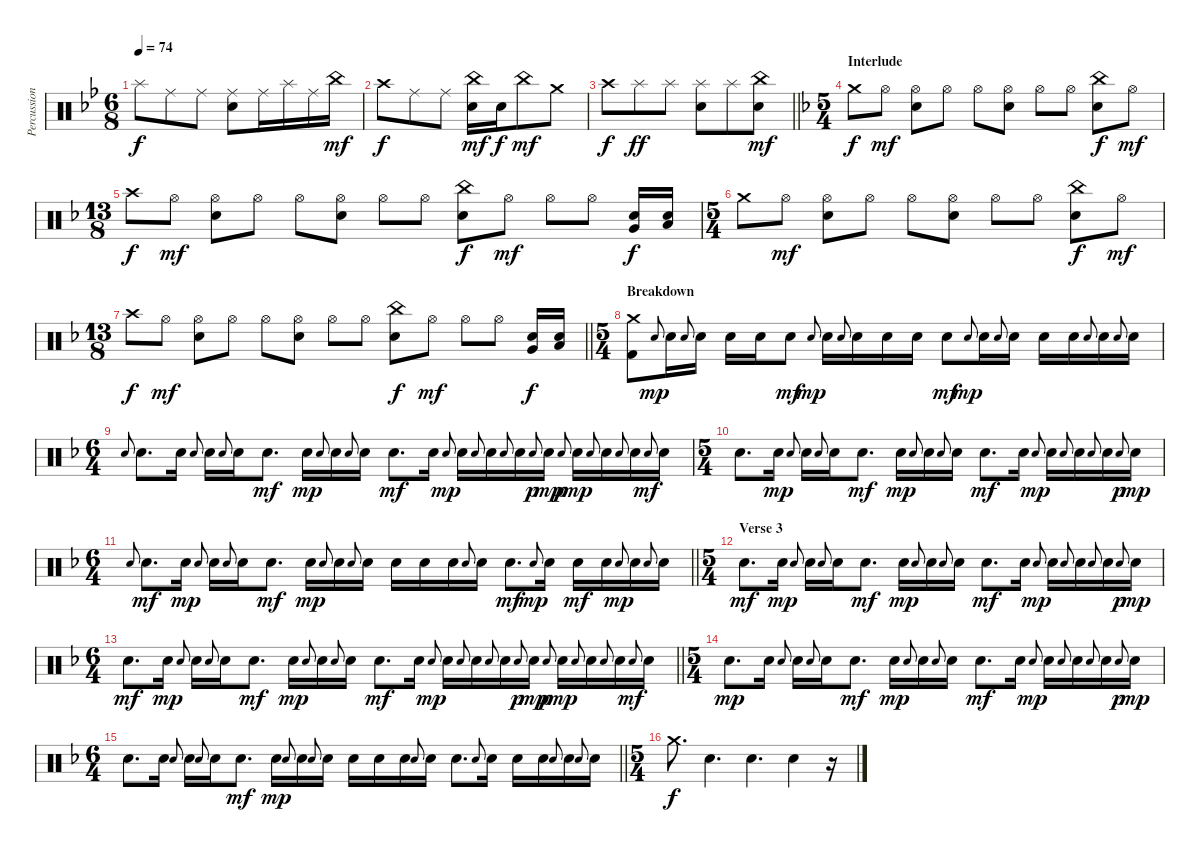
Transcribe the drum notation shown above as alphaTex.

\track ("Percussion" "Percussion") {instrument percussion}
\staff {score}
\articulation defaults
\ts (6 8)
\tempo 74
\clef neutral
\ks bb "Splash (hit)".8{dy f} "Ride (middle)".8 "Ride (middle)".8
("Ride (middle)" "Electric Snare (hit)").8 "Ride (middle)".16 "Splash (hit)".16 "Ride (middle)".16 "China (hit)".16{dy mf} |
"Crash high (hit)".8{dy f} "Ride (middle)".8 "Ride (middle)".8 ("China (hit)" "Electric Snare (hit)").16{dy mf} "Electric Snare (hit)".16{dy f} "China (hit)".8{dy mf} "Crash medium (hit)".8 |
\barLineRight lightlight "Crash high (hit)".8{dy f} "Splash (hit)".8{dy ff} "Splash (hit)".8
("Splash (hit)" "Electric Snare (hit)").8 "Splash (hit)".8 ("China (hit)" "Electric Snare (hit)").8{dy mf} |
\ts (5 4)
\section ("" "Interlude")
\ks f "Crash medium (hit)".8{dy f} "Hi-Hat (open)".8{dy mf}
("Hi-Hat (open)" "Electric Snare (hit)").8 "Hi-Hat (open)".8 "Hi-Hat (open)".8 ("Hi-Hat (open)" "Electric Snare (hit)").8 "Hi-Hat (open)".8 "Hi-Hat (open)".8 ("China (hit)" "Electric Snare (hit)").8{dy f} "Hi-Hat (open)".8{dy mf} |
\ts (13 8)
"Crash high (hit)".8{dy f} "Hi-Hat (open)".8{dy mf} ("Hi-Hat (open)" "Electric Snare (hit)").8 "Hi-Hat (open)".8 "Hi-Hat (open)".8 ("Hi-Hat (open)" "Electric Snare (hit)").8 "Hi-Hat (open)".8 "Hi-Hat (open)".8 ("China (hit)" "Electric Snare (hit)").8{dy f} "Hi-Hat (open)".8{dy mf} "Hi-Hat (open)".8 "Hi-Hat (open)".8 ("Very Low Tom (hit)" "Electric Snare (hit)").16{dy f} ("Low Floor Tom (hit)" "Electric Snare (hit)").16 |
\ts (5 4)
"Crash medium (hit)".8 "Hi-Hat (open)".8{dy mf} ("Hi-Hat (open)" "Electric Snare (hit)").8 "Hi-Hat (open)".8 "Hi-Hat (open)".8 ("Hi-Hat (open)" "Electric Snare (hit)").8 "Hi-Hat (open)".8 "Hi-Hat (open)".8 ("China (hit)" "Electric Snare (hit)").8{dy f} "Hi-Hat (open)".8{dy mf} |
\ts (13 8)
\barLineRight lightlight "Crash high (hit)".8{dy f} "Hi-Hat (open)".8{dy mf}
("Hi-Hat (open)" "Electric Snare (hit)").8 "Hi-Hat (open)".8 "Hi-Hat (open)".8 ("Hi-Hat (open)" "Electric Snare (hit)").8 "Hi-Hat (open)".8 "Hi-Hat (open)".8 ("China (hit)" "Electric Snare (hit)").8{dy f} "Hi-Hat (open)".8{dy mf} "Hi-Hat (open)".8 "Hi-Hat (open)".8 ("Very Low Tom (hit)" "Electric Snare (hit)").16{dy f} ("Low Floor Tom (hit)" "Electric Snare (hit)").16 |
\ts (5 4)
\section ("" "Breakdown")
("Crash medium (hit)" "Kick (hit) 2").8 "Electric Snare (hit)".8{gr onbeat dy mp} "Electric Snare (hit)".16 "Electric Snare (hit)".8{gr onbeat} "Electric Snare (hit)".16 "Electric Snare (hit)".16 "Electric Snare (hit)".16 "Electric Snare (hit)".8{dy mf} "Electric Snare (hit)".8{gr onbeat dy mp} "Electric Snare (hit)".16 "Electric Snare (hit)".8{gr onbeat} "Electric Snare (hit)".16 "Electric Snare (hit)".16 "Electric Snare (hit)".16 "Electric Snare (hit)".8{dy mf} "Electric Snare (hit)".8{gr onbeat dy mp} "Electric Snare (hit)".16 "Electric Snare (hit)".8{gr onbeat} "Electric Snare (hit)".16 "Electric Snare (hit)".16 "Electric Snare (hit)".16 "Electric Snare (hit)".8{gr onbeat} "Electric Snare (hit)".16 "Electric Snare (hit)".8{gr onbeat} "Electric Snare (hit)".16 |
\ts (6 4)
"Electric Snare (hit)".8{gr onbeat} "Electric Snare (hit)".8{d} "Electric Snare (hit)".16 "Electric Snare (hit)".8{gr onbeat} "Electric Snare (hit)".16 "Electric Snare (hit)".8{gr onbeat} "Electric Snare (hit)".16 "Electric Snare (hit)".8{d dy mf} "Electric Snare (hit)".16{dy mp} "Electric Snare (hit)".8{gr onbeat} "Electric Snare (hit)".16 "Electric Snare (hit)".8{gr onbeat} "Electric Snare (hit)".16 "Electric Snare (hit)".8{d dy mf} "Electric Snare (hit)".16 "Electric Snare (hit)".8{gr onbeat dy mp} "Electric Snare (hit)".16 "Electric Snare (hit)".8{gr onbeat} "Electric Snare (hit)".16 "Electric Snare (hit)".8{gr onbeat} "Electric Snare (hit)".16 "Electric Snare (hit)".8{gr onbeat dy p} "Electric Snare (hit)".16{dy mp} "Electric Snare (hit)".8{gr onbeat dy p} "Electric Snare (hit)".16{dy mp} "Electric Snare (hit)".8{gr onbeat} "Electric Snare (hit)".16 "Electric Snare (hit)".8{gr onbeat} "Electric Snare (hit)".16 "Electric Snare (hit)".8{gr onbeat dy mf} "Electric Snare (hit)".16 |
\ts (5 4)
"Electric Snare (hit)".8{d} "Electric Snare (hit)".16{dy mp} "Electric Snare (hit)".8{gr onbeat} "Electric Snare (hit)".16 "Electric Snare (hit)".8{gr onbeat} "Electric Snare (hit)".16 "Electric Snare (hit)".8{d dy mf} "Electric Snare (hit)".16{dy mp} "Electric Snare (hit)".8{gr onbeat} "Electric Snare (hit)".16 "Electric Snare (hit)".8{gr onbeat} "Electric Snare (hit)".16 "Electric Snare (hit)".8{d dy mf} "Electric Snare (hit)".16 "Electric Snare (hit)".8{gr onbeat dy mp} "Electric Snare (hit)".16 "Electric Snare (hit)".8{gr onbeat} "Electric Snare (hit)".16 "Electric Snare (hit)".8{gr onbeat} "Electric Snare (hit)".16 "Electric Snare (hit)".8{gr onbeat dy p} "Electric Snare (hit)".16{dy mp} |
\ts (6 4)
\barLineRight lightlight "Electric Snare (hit)".8{gr onbeat} "Electric Snare (hit)".8{d dy mf} "Electric Snare (hit)".16{dy mp} "Electric Snare (hit)".8{gr onbeat} "Electric Snare (hit)".16 "Electric Snare (hit)".8{gr onbeat} "Electric Snare (hit)".16 "Electric Snare (hit)".8{d dy mf} "Electric Snare (hit)".16{dy mp} "Electric Snare (hit)".8{gr onbeat} "Electric Snare (hit)".16 "Electric Snare (hit)".8{gr onbeat} "Electric Snare (hit)".16 "Electric Snare (hit)".16 "Electric Snare (hit)".16 "Electric Snare (hit)".16 "Electric Snare (hit)".8{gr onbeat} "Electric Snare (hit)".16 "Electric Snare (hit)".8{d dy mf} "Electric Snare (hit)".8{gr onbeat dy mp} "Electric Snare (hit)".16 "Electric Snare (hit)".16{dy mf} "Electric Snare (hit)".16 "Electric Snare (hit)".8{gr onbeat dy mp} "Electric Snare (hit)".16 "Electric Snare (hit)".8{gr onbeat} "Electric Snare (hit)".16
|
\ts (5 4)
\section ("" "Verse 3")
"Electric Snare (hit)".8{d dy mf} "Electric Snare (hit)".16{dy mp} "Electric Snare (hit)".8{gr onbeat} "Electric Snare (hit)".16 "Electric Snare (hit)".8{gr onbeat} "Electric Snare (hit)".16 "Electric Snare (hit)".8{d dy mf} "Electric Snare (hit)".16{dy mp} "Electric Snare (hit)".8{gr onbeat} "Electric Snare (hit)".16 "Electric Snare (hit)".8{gr onbeat} "Electric Snare (hit)".16 "Electric Snare (hit)".8{d dy mf} "Electric Snare (hit)".16 "Electric Snare (hit)".8{gr onbeat dy mp} "Electric Snare (hit)".16 "Electric Snare (hit)".8{gr onbeat} "Electric Snare (hit)".16 "Electric Snare (hit)".8{gr onbeat} "Electric Snare (hit)".16 "Electric Snare (hit)".8{gr onbeat dy p} "Electric Snare (hit)".16{dy mp} |
\ts (6 4)
\barLineRight lightlight "Electric Snare (hit)".8{d dy mf} "Electric Snare (hit)".16{dy mp} "Electric Snare (hit)".8{gr onbeat} "Electric Snare (hit)".16 "Electric Snare (hit)".8{gr onbeat} "Electric Snare (hit)".16 "Electric Snare (hit)".8{d dy mf} "Electric Snare (hit)".16{dy mp} "Electric Snare (hit)".8{gr onbeat} "Electric Snare (hit)".16 "Electric Snare (hit)".8{gr onbeat} "Electric Snare (hit)".16 "Electric Snare (hit)".8{d dy mf} "Electric Snare (hit)".16 "Electric Snare (hit)".8{gr onbeat dy mp} "Electric Snare (hit)".16 "Electric Snare (hit)".8{gr onbeat} "Electric Snare (hit)".16 "Electric Snare (hit)".8{gr onbeat} "Electric Snare (hit)".16 "Electric Snare (hit)".8{gr onbeat dy p} "Electric Snare (hit)".16{dy mp} "Electric Snare (hit)".8{gr onbeat dy p} "Electric Snare (hit)".16{dy mp} "Electric Snare (hit)".8{gr onbeat} "Electric Snare (hit)".16 "Electric Snare (hit)".8{gr onbeat} "Electric Snare (hit)".16 "Electric Snare (hit)".8{gr onbeat dy mf} "Electric Snare (hit)".16
|
\ts (5 4)
"Electric Snare (hit)".8{d dy mp} "Electric Snare (hit)".16 "Electric Snare (hit)".8{gr onbeat} "Electric Snare (hit)".16 "Electric Snare (hit)".8{gr onbeat} "Electric Snare (hit)".16 "Electric Snare (hit)".8{d dy mf} "Electric Snare (hit)".16{dy mp} "Electric Snare (hit)".8{gr onbeat} "Electric Snare (hit)".16 "Electric Snare (hit)".8{gr onbeat} "Electric Snare (hit)".16 "Electric Snare (hit)".8{d dy mf} "Electric Snare (hit)".16 "Electric Snare (hit)".8{gr onbeat dy mp} "Electric Snare (hit)".16 "Electric Snare (hit)".8{gr onbeat} "Electric Snare (hit)".16 "Electric Snare (hit)".8{gr onbeat} "Electric Snare (hit)".16 "Electric Snare (hit)".8{gr onbeat dy p} "Electric Snare (hit)".16{dy mp} |
\ts (6 4)
\barLineRight lightlight "Electric Snare (hit)".8{d} "Electric Snare (hit)".16 "Electric Snare (hit)".8{gr onbeat} "Electric Snare (hit)".16 "Electric Snare (hit)".8{gr onbeat} "Electric Snare (hit)".16 "Electric Snare (hit)".8{d dy mf} "Electric Snare (hit)".16{dy mp} "Electric Snare (hit)".8{gr onbeat} "Electric Snare (hit)".16 "Electric Snare (hit)".8{gr onbeat} "Electric Snare (hit)".16 "Electric Snare (hit)".16 "Electric Snare (hit)".16 "Electric Snare (hit)".16 "Electric Snare (hit)".8{gr onbeat} "Electric Snare (hit)".16 "Electric Snare (hit)".8{d} "Electric Snare (hit)".8{gr onbeat} "Electric Snare (hit)".16 "Electric Snare (hit)".16 "Electric Snare (hit)".16 "Electric Snare (hit)".8{gr onbeat} "Electric Snare (hit)".16 "Electric Snare (hit)".8{gr onbeat} "Electric Snare (hit)".16
|
\ts (5 4)
"Crash medium (hit)".8{d dy f} "Electric Snare (hit)".4{d} "Electric Snare (hit)".4{d} "Electric Snare (hit)".4 r.16
